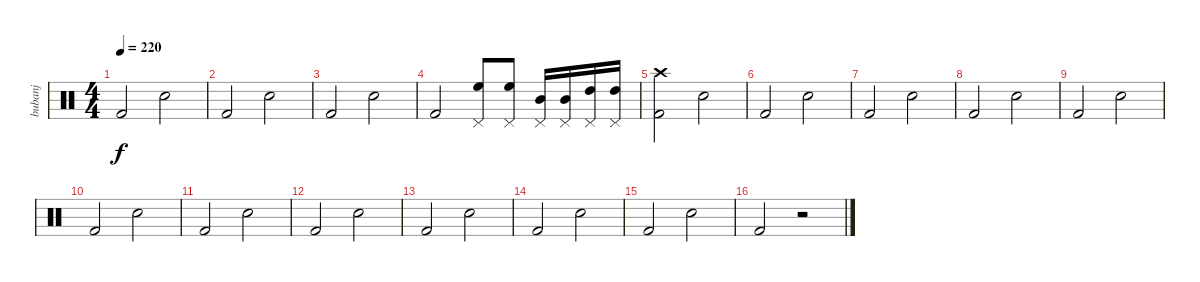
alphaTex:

\track ("bubanj" "bubanj") {instrument percussion}
\staff {score}
\articulation defaults
\ts (4 4)
\tempo 220
\clef neutral
\ks c "Kick (hit) 2".2{dy f} "Snare (hit) 2".2
|
"Kick (hit) 2".2 "Snare (hit) 2".2 |
"Kick (hit) 2".2 "Snare (hit) 2".2 |
"Kick (hit) 2".2 ("High Floor Tom (hit)" "Pedal Hi-Hat (hit)").8 ("High Floor Tom (hit)" "Pedal Hi-Hat (hit)").8 ("Mid Tom (hit)" "Pedal Hi-Hat (hit)").16 ("Mid Tom (hit)" "Pedal Hi-Hat (hit)").16 ("High Tom (hit)" "Pedal Hi-Hat (hit)").16 ("High Tom (hit)" "Pedal Hi-Hat (hit)").16 |
("Kick (hit) 2" "Crash high (hit)").2 "Snare (hit) 2".2 |
"Kick (hit) 2".2 "Snare (hit) 2".2 |
"Kick (hit) 2".2 "Snare (hit) 2".2 |
"Kick (hit) 2".2 "Snare (hit) 2".2 |
"Kick (hit) 2".2 "Snare (hit) 2".2 |
"Kick (hit) 2".2 "Snare (hit) 2".2 |
"Kick (hit) 2".2 "Snare (hit) 2".2 |
"Kick (hit) 2".2 "Snare (hit) 2".2 |
"Kick (hit) 2".2 "Snare (hit) 2".2 |
"Kick (hit) 2".2 "Snare (hit) 2".2 |
"Kick (hit) 2".2 "Snare (hit) 2".2 |
"Kick (hit) 2".2 r.2
